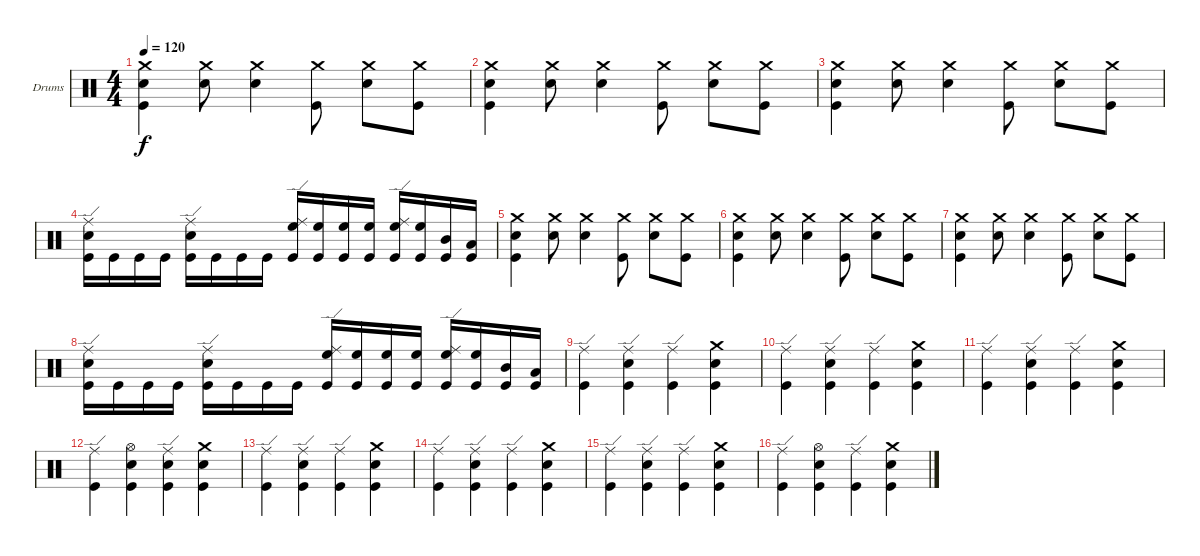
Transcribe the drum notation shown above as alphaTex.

\bracketExtendMode groupsimilarinstruments
\firstSystemTrackNameOrientation horizontal
\otherSystemsTrackNameOrientation horizontal
\track ("Drumkit" "Drums") {instrument percussion}
\staff {score}
\articulation defaults
\ts (4 4)
\tempo 120
\clef neutral
\ks c
("Crash medium (hit)" "Snare (hit) 2" "Kick (hit)").4{dy f} ("Crash medium (hit)" "Snare (hit) 2").8 ("Crash medium (hit)" "Snare (hit) 2").4 ("Crash medium (hit)" "Kick (hit)").8 ("Crash medium (hit)" "Snare (hit) 2").8 ("Crash medium (hit)" "Kick (hit)").8 |
("Crash medium (hit)" "Snare (hit) 2" "Kick (hit)").4 ("Crash medium (hit)" "Snare (hit) 2").8 ("Crash medium (hit)" "Snare (hit) 2").4 ("Crash medium (hit)" "Kick (hit)").8 ("Crash medium (hit)" "Snare (hit) 2").8 ("Crash medium (hit)" "Kick (hit)").8 |
("Crash medium (hit)" "Snare (hit) 2" "Kick (hit)").4 ("Crash medium (hit)" "Snare (hit) 2").8 ("Crash medium (hit)" "Snare (hit) 2").4 ("Crash medium (hit)" "Kick (hit)").8 ("Crash medium (hit)" "Snare (hit) 2").8 ("Crash medium (hit)" "Kick (hit)").8 |
("Ride (edge)" "Snare (hit) 2" "Kick (hit)").16 "Kick (hit)".16 "Kick (hit)".16 "Kick (hit)".16 ("Ride (edge)" "Snare (hit) 2" "Kick (hit)").16 "Kick (hit)".16 "Kick (hit)".16 "Kick (hit)".16 ("Ride (edge)" "High Floor Tom (hit)" "Kick (hit)").16 ("High Floor Tom (hit)" "Kick (hit)").16 ("High Floor Tom (hit)" "Kick (hit)").16 ("High Floor Tom (hit)" "Kick (hit)").16 ("Ride (edge)" "High Floor Tom (hit)" "Kick (hit)").16 ("High Floor Tom (hit)" "Kick (hit)").16 ("Mid Tom (hit)" "Kick (hit)").16 ("Low Tom (hit)" "Kick (hit)").16 |
("Crash medium (hit)" "Snare (hit) 2" "Kick (hit)").4 ("Crash medium (hit)" "Snare (hit) 2").8 ("Crash medium (hit)" "Snare (hit) 2").4 ("Crash medium (hit)" "Kick (hit)").8 ("Crash medium (hit)" "Snare (hit) 2").8 ("Crash medium (hit)" "Kick (hit)").8 |
("Crash medium (hit)" "Snare (hit) 2" "Kick (hit)").4 ("Crash medium (hit)" "Snare (hit) 2").8 ("Crash medium (hit)" "Snare (hit) 2").4 ("Crash medium (hit)" "Kick (hit)").8 ("Crash medium (hit)" "Snare (hit) 2").8 ("Crash medium (hit)" "Kick (hit)").8 |
("Crash medium (hit)" "Snare (hit) 2" "Kick (hit)").4 ("Crash medium (hit)" "Snare (hit) 2").8 ("Crash medium (hit)" "Snare (hit) 2").4 ("Crash medium (hit)" "Kick (hit)").8 ("Crash medium (hit)" "Snare (hit) 2").8 ("Crash medium (hit)" "Kick (hit)").8 |
("Ride (edge)" "Snare (hit) 2" "Kick (hit)").16 "Kick (hit)".16 "Kick (hit)".16 "Kick (hit)".16 ("Ride (edge)" "Snare (hit) 2" "Kick (hit)").16 "Kick (hit)".16 "Kick (hit)".16 "Kick (hit)".16 ("Ride (edge)" "High Floor Tom (hit)" "Kick (hit)").16 ("High Floor Tom (hit)" "Kick (hit)").16 ("High Floor Tom (hit)" "Kick (hit)").16 ("High Floor Tom (hit)" "Kick (hit)").16 ("Ride (edge)" "High Floor Tom (hit)" "Kick (hit)").16 ("High Floor Tom (hit)" "Kick (hit)").16 ("Mid Tom (hit)" "Kick (hit)").16 ("Low Tom (hit)" "Kick (hit)").16 |
("Ride (edge)" "Kick (hit)").4 ("Ride (edge)" "Snare (hit) 2" "Kick (hit)").4 ("Ride (edge)" "Kick (hit)").4 ("Crash medium (hit)" "Snare (hit) 2" "Kick (hit)").4 |
("Ride (edge)" "Kick (hit)").4 ("Ride (edge)" "Snare (hit) 2" "Kick (hit)").4 ("Ride (edge)" "Kick (hit)").4 ("Crash medium (hit)" "Snare (hit) 2" "Kick (hit)").4 |
("Ride (edge)" "Kick (hit)").4 ("Ride (edge)" "Snare (hit) 2" "Kick (hit)").4 ("Ride (edge)" "Kick (hit)").4 ("Crash medium (hit)" "Snare (hit) 2" "Kick (hit)").4 |
("Ride (edge)" "Kick (hit)").4 ("Hi-Hat (open)" "Snare (hit) 2" "Kick (hit)").4 ("Ride (edge)" "Snare (hit) 2" "Kick (hit)").4 ("Crash medium (hit)" "Snare (hit) 2" "Kick (hit)").4 |
("Ride (edge)" "Kick (hit)").4 ("Ride (edge)" "Snare (hit) 2" "Kick (hit)").4 ("Ride (edge)" "Kick (hit)").4 ("Crash medium (hit)" "Snare (hit) 2" "Kick (hit)").4 |
("Ride (edge)" "Kick (hit)").4 ("Ride (edge)" "Snare (hit) 2" "Kick (hit)").4 ("Ride (edge)" "Kick (hit)").4 ("Crash medium (hit)" "Snare (hit) 2" "Kick (hit)").4 |
("Ride (edge)" "Kick (hit)").4 ("Ride (edge)" "Snare (hit) 2" "Kick (hit)").4 ("Ride (edge)" "Kick (hit)").4 ("Crash medium (hit)" "Snare (hit) 2" "Kick (hit)").4 |
("Ride (edge)" "Kick (hit)").4 ("Hi-Hat (open)" "Snare (hit) 2" "Kick (hit)").4 ("Ride (edge)" "Kick (hit)").4 ("Crash medium (hit)" "Snare (hit) 2" "Kick (hit)").4
